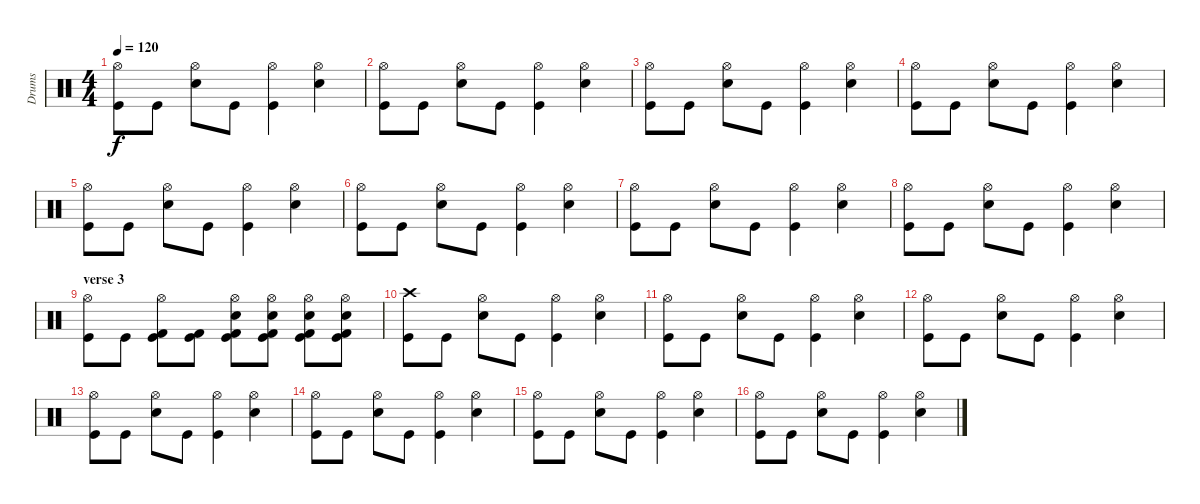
\track ("Drums" "Drums") {instrument percussion}
\staff {score}
\articulation defaults
\ts (4 4)
\tempo 120
\clef neutral
\ks c
("Hi-Hat (open)" "Kick (hit)").8{dy f} "Kick (hit)".8 ("Hi-Hat (open)" "Electric Snare (hit)").8 "Kick (hit)".8 ("Hi-Hat (open)" "Kick (hit)").4 ("Hi-Hat (open)" "Electric Snare (hit)").4 |
("Hi-Hat (open)" "Kick (hit)").8 "Kick (hit)".8 ("Hi-Hat (open)" "Electric Snare (hit)").8 "Kick (hit)".8 ("Hi-Hat (open)" "Kick (hit)").4 ("Hi-Hat (open)" "Electric Snare (hit)").4 |
("Hi-Hat (open)" "Kick (hit)").8 "Kick (hit)".8 ("Hi-Hat (open)" "Electric Snare (hit)").8 "Kick (hit)".8 ("Hi-Hat (open)" "Kick (hit)").4 ("Hi-Hat (open)" "Electric Snare (hit)").4 |
("Hi-Hat (open)" "Kick (hit)").8 "Kick (hit)".8 ("Hi-Hat (open)" "Electric Snare (hit)").8 "Kick (hit)".8 ("Hi-Hat (open)" "Kick (hit)").4 ("Hi-Hat (open)" "Electric Snare (hit)").4 |
("Hi-Hat (open)" "Kick (hit)").8 "Kick (hit)".8 ("Hi-Hat (open)" "Electric Snare (hit)").8 "Kick (hit)".8 ("Hi-Hat (open)" "Kick (hit)").4 ("Hi-Hat (open)" "Electric Snare (hit)").4 |
("Hi-Hat (open)" "Kick (hit)").8 "Kick (hit)".8 ("Hi-Hat (open)" "Electric Snare (hit)").8 "Kick (hit)".8 ("Hi-Hat (open)" "Kick (hit)").4 ("Hi-Hat (open)" "Electric Snare (hit)").4 |
("Hi-Hat (open)" "Kick (hit)").8 "Kick (hit)".8 ("Hi-Hat (open)" "Electric Snare (hit)").8 "Kick (hit)".8 ("Hi-Hat (open)" "Kick (hit)").4 ("Hi-Hat (open)" "Electric Snare (hit)").4 |
("Hi-Hat (open)" "Kick (hit)").8 "Kick (hit)".8 ("Hi-Hat (open)" "Electric Snare (hit)").8 "Kick (hit)".8 ("Hi-Hat (open)" "Kick (hit)").4 ("Hi-Hat (open)" "Electric Snare (hit)").4 |
\section ("" "verse 3")
("Hi-Hat (open)" "Kick (hit)").8 "Kick (hit)".8 ("Hi-Hat (open)" "Kick (hit) 2" "Kick (hit)").8 ("Kick (hit) 2" "Kick (hit)").8 ("Hi-Hat (open)" "Electric Snare (hit)" "Kick (hit) 2" "Kick (hit)").8 ("Hi-Hat (open)" "Electric Snare (hit)" "Kick (hit) 2" "Kick (hit)").8 ("Hi-Hat (open)" "Electric Snare (hit)" "Kick (hit) 2" "Kick (hit)").8 ("Hi-Hat (open)" "Electric Snare (hit)" "Kick (hit) 2" "Kick (hit)").8 |
("Crash high (hit)" "Kick (hit)").8 "Kick (hit)".8 ("Hi-Hat (open)" "Electric Snare (hit)").8 "Kick (hit)".8 ("Hi-Hat (open)" "Kick (hit)").4 ("Hi-Hat (open)" "Electric Snare (hit)").4 |
("Hi-Hat (open)" "Kick (hit)").8 "Kick (hit)".8 ("Hi-Hat (open)" "Electric Snare (hit)").8 "Kick (hit)".8 ("Hi-Hat (open)" "Kick (hit)").4 ("Hi-Hat (open)" "Electric Snare (hit)").4 |
("Hi-Hat (open)" "Kick (hit)").8 "Kick (hit)".8 ("Hi-Hat (open)" "Electric Snare (hit)").8 "Kick (hit)".8 ("Hi-Hat (open)" "Kick (hit)").4 ("Hi-Hat (open)" "Electric Snare (hit)").4 |
("Hi-Hat (open)" "Kick (hit)").8 "Kick (hit)".8 ("Hi-Hat (open)" "Electric Snare (hit)").8 "Kick (hit)".8 ("Hi-Hat (open)" "Kick (hit)").4 ("Hi-Hat (open)" "Electric Snare (hit)").4 |
("Hi-Hat (open)" "Kick (hit)").8 "Kick (hit)".8 ("Hi-Hat (open)" "Electric Snare (hit)").8 "Kick (hit)".8 ("Hi-Hat (open)" "Kick (hit)").4 ("Hi-Hat (open)" "Electric Snare (hit)").4 |
("Hi-Hat (open)" "Kick (hit)").8 "Kick (hit)".8 ("Hi-Hat (open)" "Electric Snare (hit)").8 "Kick (hit)".8 ("Hi-Hat (open)" "Kick (hit)").4 ("Hi-Hat (open)" "Electric Snare (hit)").4 |
("Hi-Hat (open)" "Kick (hit)").8 "Kick (hit)".8 ("Hi-Hat (open)" "Electric Snare (hit)").8 "Kick (hit)".8 ("Hi-Hat (open)" "Kick (hit)").4 ("Hi-Hat (open)" "Electric Snare (hit)").4
